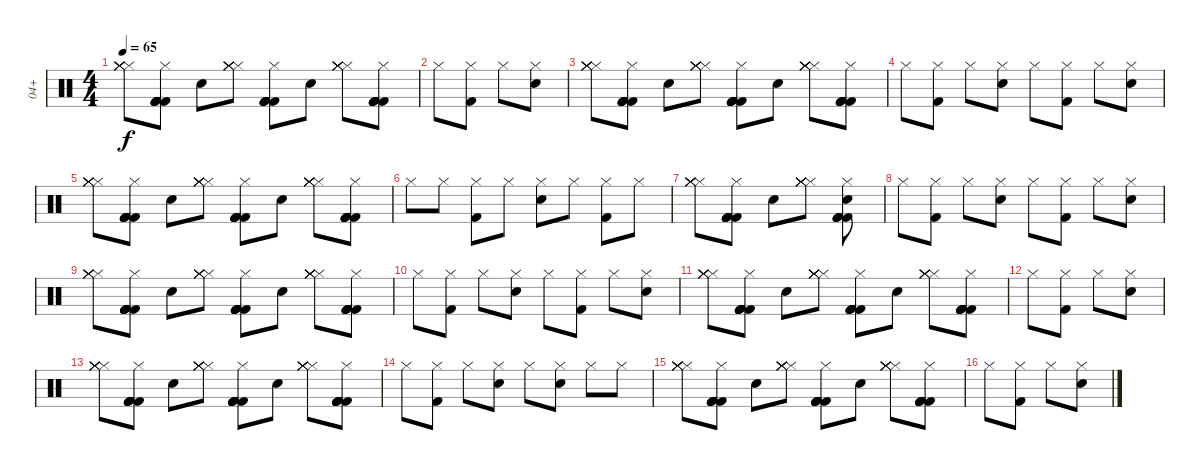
\track ("04+" "04+") {instrument percussion}
\staff {score}
\articulation defaults
\ts (4 4)
\tempo 65
\clef neutral
\ks c
("Hi-Hat (closed)" "Hi-Hat (closed)" "Hi-Hat (closed)" "Hi-Hat (closed)" "Hi-Hat (closed)" "Hi-Hat (closed)").8{dy f} ("Hi-Hat (closed)" "Kick (hit) 2" "Kick (hit) 2" "Kick (hit) 2" "Kick (hit) 2" "Kick (hit) 2").8 "Hand Clap (hit)".8 ("Hi-Hat (closed)" "Hi-Hat (closed)" "Hi-Hat (closed)" "Hi-Hat (closed)" "Hi-Hat (closed)" "Hi-Hat (closed)").8 ("Hi-Hat (closed)" "Kick (hit) 2" "Kick (hit) 2" "Kick (hit) 2" "Kick (hit) 2" "Kick (hit) 2").8 "Hand Clap (hit)".8 ("Hi-Hat (closed)" "Hi-Hat (closed)" "Hi-Hat (closed)" "Hi-Hat (closed)" "Hi-Hat (closed)" "Hi-Hat (closed)").8 ("Hi-Hat (closed)" "Kick (hit) 2" "Kick (hit) 2" "Kick (hit) 2" "Kick (hit) 2" "Kick (hit) 2").8 |
"Hi-Hat (closed)".8 ("Hi-Hat (closed)" "Kick (hit) 2").8 "Hi-Hat (closed)".8 ("Hi-Hat (closed)" "Electric Snare (hit)").8 |
("Hi-Hat (closed)" "Hi-Hat (closed)" "Hi-Hat (closed)" "Hi-Hat (closed)" "Hi-Hat (closed)" "Hi-Hat (closed)").8 ("Hi-Hat (closed)" "Kick (hit) 2" "Kick (hit) 2" "Kick (hit) 2" "Kick (hit) 2" "Kick (hit) 2").8 "Hand Clap (hit)".8 ("Hi-Hat (closed)" "Hi-Hat (closed)" "Hi-Hat (closed)" "Hi-Hat (closed)" "Hi-Hat (closed)" "Hi-Hat (closed)").8 ("Hi-Hat (closed)" "Kick (hit) 2" "Kick (hit) 2" "Kick (hit) 2" "Kick (hit) 2" "Kick (hit) 2").8 "Hand Clap (hit)".8 ("Hi-Hat (closed)" "Hi-Hat (closed)" "Hi-Hat (closed)" "Hi-Hat (closed)" "Hi-Hat (closed)" "Hi-Hat (closed)").8 ("Hi-Hat (closed)" "Kick (hit) 2" "Kick (hit) 2" "Kick (hit) 2" "Kick (hit) 2" "Kick (hit) 2").8 |
"Hi-Hat (closed)".8 ("Hi-Hat (closed)" "Kick (hit) 2").8 "Hi-Hat (closed)".8 ("Hi-Hat (closed)" "Electric Snare (hit)").8 "Hi-Hat (closed)".8 ("Hi-Hat (closed)" "Kick (hit) 2").8 "Hi-Hat (closed)".8 ("Hi-Hat (closed)" "Electric Snare (hit)").8 |
("Hi-Hat (closed)" "Hi-Hat (closed)" "Hi-Hat (closed)" "Hi-Hat (closed)" "Hi-Hat (closed)" "Hi-Hat (closed)").8 ("Hi-Hat (closed)" "Kick (hit) 2" "Kick (hit) 2" "Kick (hit) 2" "Kick (hit) 2" "Kick (hit) 2").8 "Hand Clap (hit)".8 ("Hi-Hat (closed)" "Hi-Hat (closed)" "Hi-Hat (closed)" "Hi-Hat (closed)" "Hi-Hat (closed)" "Hi-Hat (closed)").8 ("Hi-Hat (closed)" "Kick (hit) 2" "Kick (hit) 2" "Kick (hit) 2" "Kick (hit) 2" "Kick (hit) 2").8 "Hand Clap (hit)".8 ("Hi-Hat (closed)" "Hi-Hat (closed)" "Hi-Hat (closed)" "Hi-Hat (closed)" "Hi-Hat (closed)" "Hi-Hat (closed)").8 ("Hi-Hat (closed)" "Kick (hit) 2" "Kick (hit) 2" "Kick (hit) 2" "Kick (hit) 2" "Kick (hit) 2").8 |
"Hi-Hat (closed)".8 "Hi-Hat (closed)".8 ("Hi-Hat (closed)" "Kick (hit) 2").8 "Hi-Hat (closed)".8 ("Hi-Hat (closed)" "Electric Snare (hit)").8 "Hi-Hat (closed)".8 ("Hi-Hat (closed)" "Kick (hit) 2").8 "Hi-Hat (closed)".8 |
("Hi-Hat (closed)" "Hi-Hat (closed)" "Hi-Hat (closed)" "Hi-Hat (closed)" "Hi-Hat (closed)" "Hi-Hat (closed)").8 ("Hi-Hat (closed)" "Kick (hit) 2" "Kick (hit) 2" "Kick (hit) 2" "Kick (hit) 2" "Kick (hit) 2").8 "Hand Clap (hit)".8 ("Hi-Hat (closed)" "Hi-Hat (closed)" "Hi-Hat (closed)" "Hi-Hat (closed)" "Hi-Hat (closed)" "Hi-Hat (closed)").8 ("Hi-Hat (closed)" "Hand Clap (hit)" "Kick (hit) 2" "Kick (hit) 2" "Kick (hit) 2" "Kick (hit) 2").8 |
"Hi-Hat (closed)".8 ("Hi-Hat (closed)" "Kick (hit) 2").8 "Hi-Hat (closed)".8 ("Hi-Hat (closed)" "Electric Snare (hit)").8 "Hi-Hat (closed)".8 ("Hi-Hat (closed)" "Kick (hit) 2").8 "Hi-Hat (closed)".8 ("Hi-Hat (closed)" "Electric Snare (hit)").8 |
("Hi-Hat (closed)" "Hi-Hat (closed)" "Hi-Hat (closed)" "Hi-Hat (closed)" "Hi-Hat (closed)" "Hi-Hat (closed)").8 ("Hi-Hat (closed)" "Kick (hit) 2" "Kick (hit) 2" "Kick (hit) 2" "Kick (hit) 2" "Kick (hit) 2").8 "Hand Clap (hit)".8 ("Hi-Hat (closed)" "Hi-Hat (closed)" "Hi-Hat (closed)" "Hi-Hat (closed)" "Hi-Hat (closed)" "Hi-Hat (closed)").8 ("Hi-Hat (closed)" "Kick (hit) 2" "Kick (hit) 2" "Kick (hit) 2" "Kick (hit) 2" "Kick (hit) 2").8 "Hand Clap (hit)".8 ("Hi-Hat (closed)" "Hi-Hat (closed)" "Hi-Hat (closed)" "Hi-Hat (closed)" "Hi-Hat (closed)" "Hi-Hat (closed)").8 ("Hi-Hat (closed)" "Kick (hit) 2" "Kick (hit) 2" "Kick (hit) 2" "Kick (hit) 2" "Kick (hit) 2").8 |
"Hi-Hat (closed)".8 ("Hi-Hat (closed)" "Kick (hit) 2").8 "Hi-Hat (closed)".8 ("Hi-Hat (closed)" "Electric Snare (hit)").8 "Hi-Hat (closed)".8 ("Hi-Hat (closed)" "Kick (hit) 2").8 "Hi-Hat (closed)".8 ("Hi-Hat (closed)" "Electric Snare (hit)").8 |
("Hi-Hat (closed)" "Hi-Hat (closed)" "Hi-Hat (closed)" "Hi-Hat (closed)" "Hi-Hat (closed)" "Hi-Hat (closed)").8 ("Hi-Hat (closed)" "Kick (hit) 2" "Kick (hit) 2" "Kick (hit) 2" "Kick (hit) 2" "Kick (hit) 2").8 "Hand Clap (hit)".8 ("Hi-Hat (closed)" "Hi-Hat (closed)" "Hi-Hat (closed)" "Hi-Hat (closed)" "Hi-Hat (closed)" "Hi-Hat (closed)").8 ("Hi-Hat (closed)" "Kick (hit) 2" "Kick (hit) 2" "Kick (hit) 2" "Kick (hit) 2" "Kick (hit) 2").8 "Hand Clap (hit)".8 ("Hi-Hat (closed)" "Hi-Hat (closed)" "Hi-Hat (closed)" "Hi-Hat (closed)" "Hi-Hat (closed)" "Hi-Hat (closed)").8 ("Hi-Hat (closed)" "Kick (hit) 2" "Kick (hit) 2" "Kick (hit) 2" "Kick (hit) 2" "Kick (hit) 2").8 |
"Hi-Hat (closed)".8 ("Hi-Hat (closed)" "Kick (hit) 2").8 "Hi-Hat (closed)".8 ("Hi-Hat (closed)" "Electric Snare (hit)").8 |
("Hi-Hat (closed)" "Hi-Hat (closed)" "Hi-Hat (closed)" "Hi-Hat (closed)" "Hi-Hat (closed)" "Hi-Hat (closed)").8 ("Hi-Hat (closed)" "Kick (hit) 2" "Kick (hit) 2" "Kick (hit) 2" "Kick (hit) 2" "Kick (hit) 2").8 "Hand Clap (hit)".8 ("Hi-Hat (closed)" "Hi-Hat (closed)" "Hi-Hat (closed)" "Hi-Hat (closed)" "Hi-Hat (closed)" "Hi-Hat (closed)").8 ("Hi-Hat (closed)" "Kick (hit) 2" "Kick (hit) 2" "Kick (hit) 2" "Kick (hit) 2" "Kick (hit) 2").8 "Hand Clap (hit)".8 ("Hi-Hat (closed)" "Hi-Hat (closed)" "Hi-Hat (closed)" "Hi-Hat (closed)" "Hi-Hat (closed)" "Hi-Hat (closed)").8 ("Hi-Hat (closed)" "Kick (hit) 2" "Kick (hit) 2" "Kick (hit) 2" "Kick (hit) 2" "Kick (hit) 2").8 |
"Hi-Hat (closed)".8 ("Hi-Hat (closed)" "Kick (hit) 2").8 "Hi-Hat (closed)".8 ("Hi-Hat (closed)" "Electric Snare (hit)").8 "Hi-Hat (closed)".8 ("Hi-Hat (closed)" "Hand Clap (hit)").8 "Hi-Hat (closed)".8 "Hi-Hat (closed)".8 |
("Hi-Hat (closed)" "Hi-Hat (closed)" "Hi-Hat (closed)" "Hi-Hat (closed)" "Hi-Hat (closed)" "Hi-Hat (closed)").8 ("Hi-Hat (closed)" "Kick (hit) 2" "Kick (hit) 2" "Kick (hit) 2" "Kick (hit) 2" "Kick (hit) 2").8 "Hand Clap (hit)".8 ("Hi-Hat (closed)" "Hi-Hat (closed)" "Hi-Hat (closed)" "Hi-Hat (closed)" "Hi-Hat (closed)" "Hi-Hat (closed)").8 ("Hi-Hat (closed)" "Kick (hit) 2" "Kick (hit) 2" "Kick (hit) 2" "Kick (hit) 2" "Kick (hit) 2").8 "Hand Clap (hit)".8 ("Hi-Hat (closed)" "Hi-Hat (closed)" "Hi-Hat (closed)" "Hi-Hat (closed)" "Hi-Hat (closed)" "Hi-Hat (closed)").8 ("Hi-Hat (closed)" "Kick (hit) 2" "Kick (hit) 2" "Kick (hit) 2" "Kick (hit) 2" "Kick (hit) 2").8 |
"Hi-Hat (closed)".8 ("Hi-Hat (closed)" "Kick (hit) 2").8 "Hi-Hat (closed)".8 ("Hi-Hat (closed)" "Electric Snare (hit)").8
